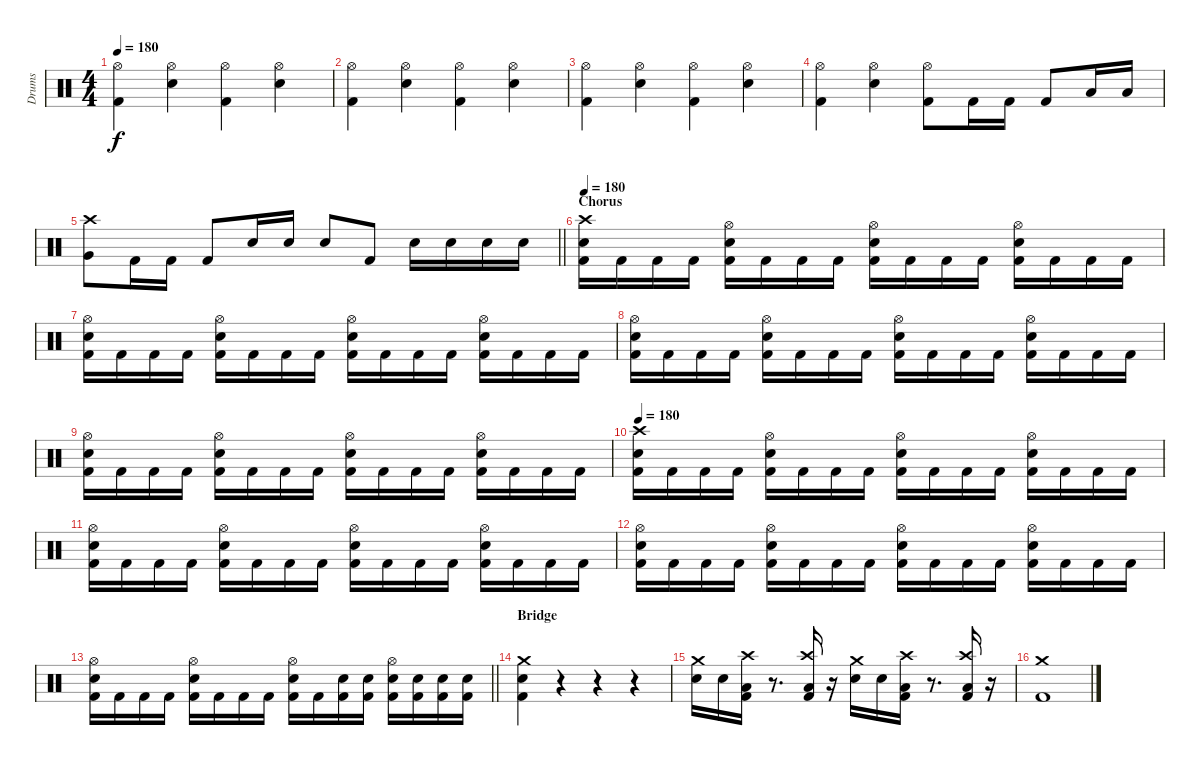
\track ("Drums" "Drums") {instrument percussion}
\staff {score}
\articulation defaults
\ts (4 4)
\tempo 180
\clef neutral
\ks c
("Hi-Hat (open)" "Kick (hit) 2").4{dy f} ("Hi-Hat (open)" "Electric Snare (hit)").4 ("Hi-Hat (open)" "Kick (hit) 2").4 ("Hi-Hat (open)" "Electric Snare (hit)").4 |
("Hi-Hat (open)" "Kick (hit) 2").4 ("Hi-Hat (open)" "Electric Snare (hit)").4 ("Hi-Hat (open)" "Kick (hit) 2").4 ("Hi-Hat (open)" "Electric Snare (hit)").4 |
("Hi-Hat (open)" "Kick (hit) 2").4 ("Hi-Hat (open)" "Electric Snare (hit)").4 ("Hi-Hat (open)" "Kick (hit) 2").4 ("Hi-Hat (open)" "Electric Snare (hit)").4 |
("Hi-Hat (open)" "Kick (hit) 2").4 ("Hi-Hat (open)" "Electric Snare (hit)").4 ("Hi-Hat (open)" "Kick (hit) 2").8 "Kick (hit) 2".16 "Kick (hit) 2".16 "Kick (hit) 2".8 "Low Tom (hit)".16 "Low Tom (hit)".16 |
\barLineRight lightlight
("Crash high (hit)" "Very Low Tom (hit)").8 "Kick (hit) 2".16 "Kick (hit) 2".16 "Kick (hit) 2".8 "Electric Snare (hit)".16 "Electric Snare (hit)".16 "Electric Snare (hit)".8 "Kick (hit) 2".8 "Electric Snare (hit)".16 "Electric Snare (hit)".16 "Electric Snare (hit)".16 "Electric Snare (hit)".16 |
\section ("" "Chorus")
\tempo 180
("Crash high (hit)" "Electric Snare (hit)" "Kick (hit) 2").16 "Kick (hit) 2".16 "Kick (hit) 2".16 "Kick (hit) 2".16 ("Hi-Hat (open)" "Electric Snare (hit)" "Kick (hit) 2").16 "Kick (hit) 2".16 "Kick (hit) 2".16 "Kick (hit) 2".16 ("Hi-Hat (open)" "Electric Snare (hit)" "Kick (hit) 2").16 "Kick (hit) 2".16 "Kick (hit) 2".16 "Kick (hit) 2".16 ("Hi-Hat (open)" "Electric Snare (hit)" "Kick (hit) 2").16 "Kick (hit) 2".16 "Kick (hit) 2".16 "Kick (hit) 2".16 |
("Hi-Hat (open)" "Electric Snare (hit)" "Kick (hit) 2").16 "Kick (hit) 2".16 "Kick (hit) 2".16 "Kick (hit) 2".16 ("Hi-Hat (open)" "Electric Snare (hit)" "Kick (hit) 2").16 "Kick (hit) 2".16 "Kick (hit) 2".16 "Kick (hit) 2".16 ("Hi-Hat (open)" "Electric Snare (hit)" "Kick (hit) 2").16 "Kick (hit) 2".16 "Kick (hit) 2".16 "Kick (hit) 2".16 ("Hi-Hat (open)" "Electric Snare (hit)" "Kick (hit) 2").16 "Kick (hit) 2".16 "Kick (hit) 2".16 "Kick (hit) 2".16 |
("Hi-Hat (open)" "Electric Snare (hit)" "Kick (hit) 2").16 "Kick (hit) 2".16 "Kick (hit) 2".16 "Kick (hit) 2".16 ("Hi-Hat (open)" "Electric Snare (hit)" "Kick (hit) 2").16 "Kick (hit) 2".16 "Kick (hit) 2".16 "Kick (hit) 2".16 ("Hi-Hat (open)" "Electric Snare (hit)" "Kick (hit) 2").16 "Kick (hit) 2".16 "Kick (hit) 2".16 "Kick (hit) 2".16 ("Hi-Hat (open)" "Electric Snare (hit)" "Kick (hit) 2").16 "Kick (hit) 2".16 "Kick (hit) 2".16 "Kick (hit) 2".16 |
("Hi-Hat (open)" "Electric Snare (hit)" "Kick (hit) 2").16 "Kick (hit) 2".16 "Kick (hit) 2".16 "Kick (hit) 2".16 ("Hi-Hat (open)" "Electric Snare (hit)" "Kick (hit) 2").16 "Kick (hit) 2".16 "Kick (hit) 2".16 "Kick (hit) 2".16 ("Hi-Hat (open)" "Electric Snare (hit)" "Kick (hit) 2").16 "Kick (hit) 2".16 "Kick (hit) 2".16 "Kick (hit) 2".16 ("Hi-Hat (open)" "Electric Snare (hit)" "Kick (hit) 2").16 "Kick (hit) 2".16 "Kick (hit) 2".16 "Kick (hit) 2".16 |
\tempo 180
("Crash high (hit)" "Electric Snare (hit)" "Kick (hit) 2").16 "Kick (hit) 2".16 "Kick (hit) 2".16 "Kick (hit) 2".16 ("Hi-Hat (open)" "Electric Snare (hit)" "Kick (hit) 2").16 "Kick (hit) 2".16 "Kick (hit) 2".16 "Kick (hit) 2".16 ("Hi-Hat (open)" "Electric Snare (hit)" "Kick (hit) 2").16 "Kick (hit) 2".16 "Kick (hit) 2".16 "Kick (hit) 2".16 ("Hi-Hat (open)" "Electric Snare (hit)" "Kick (hit) 2").16 "Kick (hit) 2".16 "Kick (hit) 2".16 "Kick (hit) 2".16 |
("Hi-Hat (open)" "Electric Snare (hit)" "Kick (hit) 2").16 "Kick (hit) 2".16 "Kick (hit) 2".16 "Kick (hit) 2".16 ("Hi-Hat (open)" "Electric Snare (hit)" "Kick (hit) 2").16 "Kick (hit) 2".16 "Kick (hit) 2".16 "Kick (hit) 2".16 ("Hi-Hat (open)" "Electric Snare (hit)" "Kick (hit) 2").16 "Kick (hit) 2".16 "Kick (hit) 2".16 "Kick (hit) 2".16 ("Hi-Hat (open)" "Electric Snare (hit)" "Kick (hit) 2").16 "Kick (hit) 2".16 "Kick (hit) 2".16 "Kick (hit) 2".16 |
("Hi-Hat (open)" "Electric Snare (hit)" "Kick (hit) 2").16 "Kick (hit) 2".16 "Kick (hit) 2".16 "Kick (hit) 2".16 ("Hi-Hat (open)" "Electric Snare (hit)" "Kick (hit) 2").16 "Kick (hit) 2".16 "Kick (hit) 2".16 "Kick (hit) 2".16 ("Hi-Hat (open)" "Electric Snare (hit)" "Kick (hit) 2").16 "Kick (hit) 2".16 "Kick (hit) 2".16 "Kick (hit) 2".16 ("Hi-Hat (open)" "Electric Snare (hit)" "Kick (hit) 2").16 "Kick (hit) 2".16 "Kick (hit) 2".16 "Kick (hit) 2".16 |
\barLineRight lightlight
("Hi-Hat (open)" "Electric Snare (hit)" "Kick (hit) 2").16 "Kick (hit) 2".16 "Kick (hit) 2".16 "Kick (hit) 2".16 ("Hi-Hat (open)" "Electric Snare (hit)" "Kick (hit) 2").16 "Kick (hit) 2".16 "Kick (hit) 2".16 "Kick (hit) 2".16 ("Hi-Hat (open)" "Electric Snare (hit)" "Kick (hit) 2").16 "Kick (hit) 2".16 ("Electric Snare (hit)" "Kick (hit) 2").16 ("Electric Snare (hit)" "Kick (hit) 2").16 ("Hi-Hat (open)" "Electric Snare (hit)" "Kick (hit) 2").16 ("Electric Snare (hit)" "Kick (hit) 2").16 ("Electric Snare (hit)" "Kick (hit) 2").16 ("Electric Snare (hit)" "Kick (hit) 2").16 |
\section ("" "Bridge")
("Crash medium (hit)" "Electric Snare (hit)" "Kick (hit) 2").4 r.4 r.4 r.4 |
("Crash medium (hit)" "Electric Snare (hit)").16 "Electric Snare (hit)".16 ("Crash high (hit)" "Low Floor Tom (hit)" "Kick (hit) 2").16 r.8{d} ("Crash high (hit)" "Low Floor Tom (hit)" "Kick (hit) 2").16 r.16 ("Crash medium (hit)" "Electric Snare (hit)").16 "Electric Snare (hit)".16 ("Crash high (hit)" "Low Floor Tom (hit)" "Kick (hit) 2").16 r.8{d} ("Crash high (hit)" "Low Floor Tom (hit)" "Kick (hit) 2").16 r.16 |
("Crash medium (hit)" "Kick (hit) 2").1
